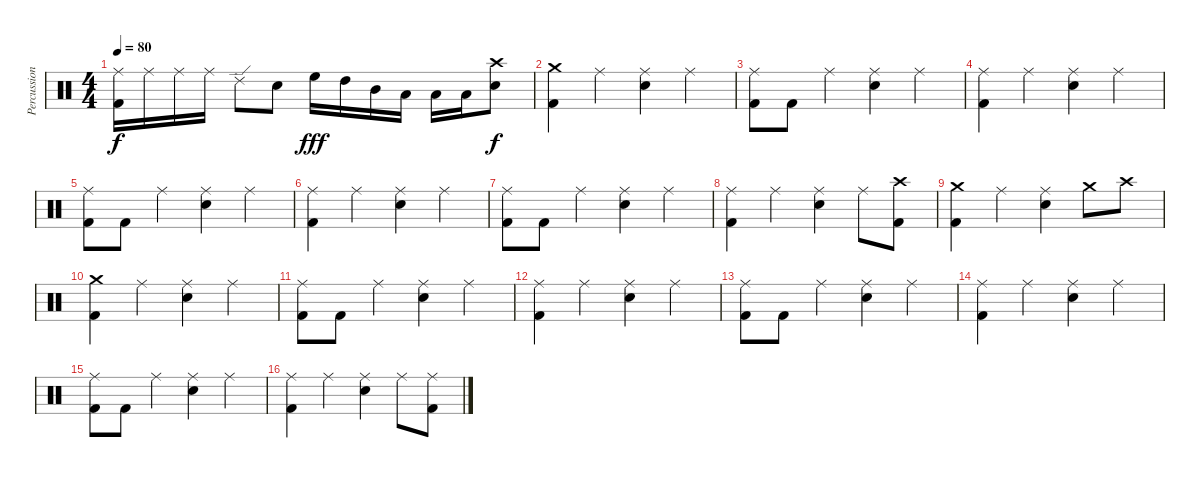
\track ("Percussion" "Percussion") {instrument percussion}
\staff {score}
\articulation defaults
\ts (4 4)
\tempo 80
\clef neutral
\ks c
("Ride (middle)" "Kick (hit) 2").16{dy f} "Ride (middle)".16 "Ride (middle)".16 "Ride (middle)".16 "Ride (edge) 2".8 "Snare (hit) 2".8 "High Floor Tom (hit)".16{dy fff} "High Tom (hit)".16 "Mid Tom (hit)".16 "Low Tom (hit)".16 "Low Tom (hit)".16 "Low Tom (hit)".16 ("Crash high (hit)" "Snare (hit) 2").8{dy f} |
("Crash medium (hit)" "Kick (hit) 2").4 "Ride (middle)".4 ("Ride (middle)" "Snare (hit) 2").4 "Ride (middle)".4 |
("Ride (middle)" "Kick (hit) 2").8 "Kick (hit) 2".8 "Ride (middle)".4 ("Ride (middle)" "Snare (hit) 2").4 "Ride (middle)".4 |
("Ride (middle)" "Kick (hit) 2").4 "Ride (middle)".4 ("Ride (middle)" "Snare (hit) 2").4 "Ride (middle)".4 |
("Ride (middle)" "Kick (hit) 2").8 "Kick (hit) 2".8 "Ride (middle)".4 ("Ride (middle)" "Snare (hit) 2").4 "Ride (middle)".4 |
("Ride (middle)" "Kick (hit) 2").4 "Ride (middle)".4 ("Ride (middle)" "Snare (hit) 2").4 "Ride (middle)".4 |
("Ride (middle)" "Kick (hit) 2").8 "Kick (hit) 2".8 "Ride (middle)".4 ("Ride (middle)" "Snare (hit) 2").4 "Ride (middle)".4 |
("Ride (middle)" "Kick (hit) 2").4 "Ride (middle)".4 ("Ride (middle)" "Snare (hit) 2").4 "Ride (middle)".8 ("Crash high (hit)" "Kick (hit) 2").8 |
("Crash medium (hit)" "Kick (hit) 2").4 "Ride (middle)".4 ("Ride (middle)" "Snare (hit) 2").4 "Crash medium (hit)".8 "Crash high (hit)".8 |
("Crash medium (hit)" "Kick (hit) 2").4 "Ride (middle)".4 ("Ride (middle)" "Snare (hit) 2").4 "Ride (middle)".4 |
("Ride (middle)" "Kick (hit) 2").8 "Kick (hit) 2".8 "Ride (middle)".4 ("Ride (middle)" "Snare (hit) 2").4 "Ride (middle)".4 |
("Ride (middle)" "Kick (hit) 2").4 "Ride (middle)".4 ("Ride (middle)" "Snare (hit) 2").4 "Ride (middle)".4 |
("Ride (middle)" "Kick (hit) 2").8 "Kick (hit) 2".8 "Ride (middle)".4 ("Ride (middle)" "Snare (hit) 2").4 "Ride (middle)".4 |
("Ride (middle)" "Kick (hit) 2").4 "Ride (middle)".4 ("Ride (middle)" "Snare (hit) 2").4 "Ride (middle)".4 |
("Ride (middle)" "Kick (hit) 2").8 "Kick (hit) 2".8 "Ride (middle)".4 ("Ride (middle)" "Snare (hit) 2").4 "Ride (middle)".4 |
("Ride (middle)" "Kick (hit) 2").4 "Ride (middle)".4 ("Ride (middle)" "Snare (hit) 2").4 "Ride (middle)".8 ("Ride (middle)" "Kick (hit) 2").8
